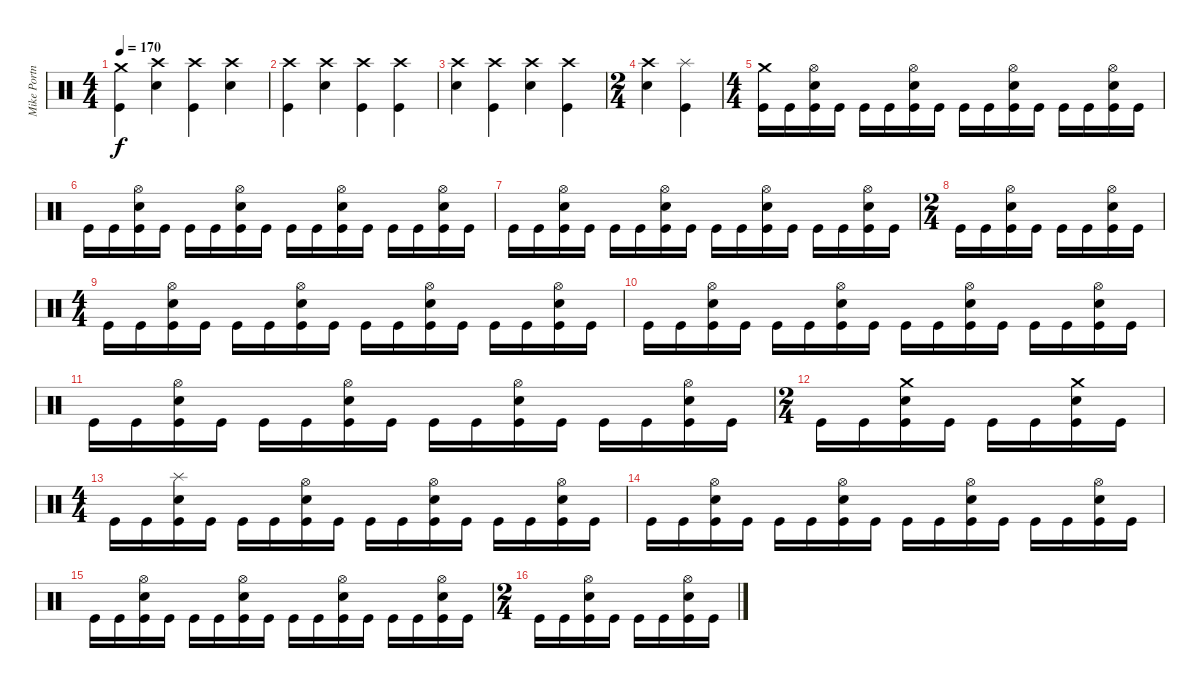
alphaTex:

\track ("Mike Portnoy" "Mike Portn") {instrument percussion}
\staff {score}
\articulation defaults
\ts (4 4)
\tempo 170
\clef neutral
\ks c
("Crash medium (hit)" "Kick (hit)").4{dy f} ("Crash high (hit)" "Electric Snare (hit)").4 ("Crash high (hit)" "Kick (hit)").4 ("Crash high (hit)" "Electric Snare (hit)").4 |
("Crash high (hit)" "Kick (hit)").4 ("Crash high (hit)" "Electric Snare (hit)").4 ("Crash high (hit)" "Kick (hit)").4 ("Crash high (hit)" "Kick (hit)").4 |
("Crash high (hit)" "Electric Snare (hit)").4 ("Crash high (hit)" "Kick (hit)").4 ("Crash high (hit)" "Electric Snare (hit)").4 ("Crash high (hit)" "Kick (hit)").4 |
\ts (2 4)
("Crash high (hit)" "Electric Snare (hit)").4 ("Splash (hit)" "Kick (hit)").4 |
\ts (4 4)
("Crash medium (hit)" "Kick (hit)").16 "Kick (hit)".16 ("Hi-Hat (open)" "Kick (hit)" "Electric Snare (hit)").16 "Kick (hit)".16 "Kick (hit)".16 "Kick (hit)".16 ("Hi-Hat (open)" "Kick (hit)" "Electric Snare (hit)").16 "Kick (hit)".16 "Kick (hit)".16 "Kick (hit)".16 ("Hi-Hat (open)" "Kick (hit)" "Electric Snare (hit)").16 "Kick (hit)".16 "Kick (hit)".16 "Kick (hit)".16 ("Hi-Hat (open)" "Kick (hit)" "Electric Snare (hit)").16 "Kick (hit)".16 |
"Kick (hit)".16 "Kick (hit)".16 ("Hi-Hat (open)" "Kick (hit)" "Electric Snare (hit)").16 "Kick (hit)".16 "Kick (hit)".16 "Kick (hit)".16 ("Hi-Hat (open)" "Kick (hit)" "Electric Snare (hit)").16 "Kick (hit)".16 "Kick (hit)".16 "Kick (hit)".16 ("Hi-Hat (open)" "Kick (hit)" "Electric Snare (hit)").16 "Kick (hit)".16 "Kick (hit)".16 "Kick (hit)".16 ("Hi-Hat (open)" "Kick (hit)" "Electric Snare (hit)").16 "Kick (hit)".16 |
"Kick (hit)".16 "Kick (hit)".16 ("Hi-Hat (open)" "Kick (hit)" "Electric Snare (hit)").16 "Kick (hit)".16 "Kick (hit)".16 "Kick (hit)".16 ("Hi-Hat (open)" "Kick (hit)" "Electric Snare (hit)").16 "Kick (hit)".16 "Kick (hit)".16 "Kick (hit)".16 ("Hi-Hat (open)" "Kick (hit)" "Electric Snare (hit)").16 "Kick (hit)".16 "Kick (hit)".16 "Kick (hit)".16 ("Hi-Hat (open)" "Kick (hit)" "Electric Snare (hit)").16 "Kick (hit)".16 |
\ts (2 4)
"Kick (hit)".16 "Kick (hit)".16 ("Hi-Hat (open)" "Kick (hit)" "Electric Snare (hit)").16 "Kick (hit)".16 "Kick (hit)".16 "Kick (hit)".16 ("Hi-Hat (open)" "Kick (hit)" "Electric Snare (hit)").16 "Kick (hit)".16 |
\ts (4 4)
"Kick (hit)".16 "Kick (hit)".16 ("Hi-Hat (open)" "Kick (hit)" "Electric Snare (hit)").16 "Kick (hit)".16 "Kick (hit)".16 "Kick (hit)".16 ("Hi-Hat (open)" "Kick (hit)" "Electric Snare (hit)").16 "Kick (hit)".16 "Kick (hit)".16 "Kick (hit)".16 ("Hi-Hat (open)" "Kick (hit)" "Electric Snare (hit)").16 "Kick (hit)".16 "Kick (hit)".16 "Kick (hit)".16 ("Hi-Hat (open)" "Kick (hit)" "Electric Snare (hit)").16 "Kick (hit)".16 |
"Kick (hit)".16 "Kick (hit)".16 ("Hi-Hat (open)" "Kick (hit)" "Electric Snare (hit)").16 "Kick (hit)".16 "Kick (hit)".16 "Kick (hit)".16 ("Hi-Hat (open)" "Kick (hit)" "Electric Snare (hit)").16 "Kick (hit)".16 "Kick (hit)".16 "Kick (hit)".16 ("Hi-Hat (open)" "Kick (hit)" "Electric Snare (hit)").16 "Kick (hit)".16 "Kick (hit)".16 "Kick (hit)".16 ("Hi-Hat (open)" "Kick (hit)" "Electric Snare (hit)").16 "Kick (hit)".16 |
"Kick (hit)".16 "Kick (hit)".16 ("Hi-Hat (open)" "Kick (hit)" "Electric Snare (hit)").16 "Kick (hit)".16 "Kick (hit)".16 "Kick (hit)".16 ("Hi-Hat (open)" "Kick (hit)" "Electric Snare (hit)").16 "Kick (hit)".16 "Kick (hit)".16 "Kick (hit)".16 ("Hi-Hat (open)" "Kick (hit)" "Electric Snare (hit)").16 "Kick (hit)".16 "Kick (hit)".16 "Kick (hit)".16 ("Hi-Hat (open)" "Kick (hit)" "Electric Snare (hit)").16 "Kick (hit)".16 |
\ts (2 4)
"Kick (hit)".16 "Kick (hit)".16 ("Crash medium (hit)" "Kick (hit)" "Electric Snare (hit)").16 "Kick (hit)".16 "Kick (hit)".16 "Kick (hit)".16 ("Crash medium (hit)" "Kick (hit)" "Electric Snare (hit)").16 "Kick (hit)".16 |
\ts (4 4)
"Kick (hit)".16 "Kick (hit)".16 ("Splash (hit)" "Kick (hit)" "Electric Snare (hit)").16 "Kick (hit)".16 "Kick (hit)".16 "Kick (hit)".16 ("Hi-Hat (open)" "Kick (hit)" "Electric Snare (hit)").16 "Kick (hit)".16 "Kick (hit)".16 "Kick (hit)".16 ("Hi-Hat (open)" "Kick (hit)" "Electric Snare (hit)").16 "Kick (hit)".16 "Kick (hit)".16 "Kick (hit)".16 ("Hi-Hat (open)" "Kick (hit)" "Electric Snare (hit)").16 "Kick (hit)".16 |
"Kick (hit)".16 "Kick (hit)".16 ("Hi-Hat (open)" "Kick (hit)" "Electric Snare (hit)").16 "Kick (hit)".16 "Kick (hit)".16 "Kick (hit)".16 ("Hi-Hat (open)" "Kick (hit)" "Electric Snare (hit)").16 "Kick (hit)".16 "Kick (hit)".16 "Kick (hit)".16 ("Hi-Hat (open)" "Kick (hit)" "Electric Snare (hit)").16 "Kick (hit)".16 "Kick (hit)".16 "Kick (hit)".16 ("Hi-Hat (open)" "Kick (hit)" "Electric Snare (hit)").16 "Kick (hit)".16 |
"Kick (hit)".16 "Kick (hit)".16 ("Hi-Hat (open)" "Kick (hit)" "Electric Snare (hit)").16 "Kick (hit)".16 "Kick (hit)".16 "Kick (hit)".16 ("Hi-Hat (open)" "Kick (hit)" "Electric Snare (hit)").16 "Kick (hit)".16 "Kick (hit)".16 "Kick (hit)".16 ("Hi-Hat (open)" "Kick (hit)" "Electric Snare (hit)").16 "Kick (hit)".16 "Kick (hit)".16 "Kick (hit)".16 ("Hi-Hat (open)" "Kick (hit)" "Electric Snare (hit)").16 "Kick (hit)".16 |
\ts (2 4)
"Kick (hit)".16 "Kick (hit)".16 ("Hi-Hat (open)" "Kick (hit)" "Electric Snare (hit)").16 "Kick (hit)".16 "Kick (hit)".16 "Kick (hit)".16 ("Hi-Hat (open)" "Kick (hit)" "Electric Snare (hit)").16 "Kick (hit)".16
